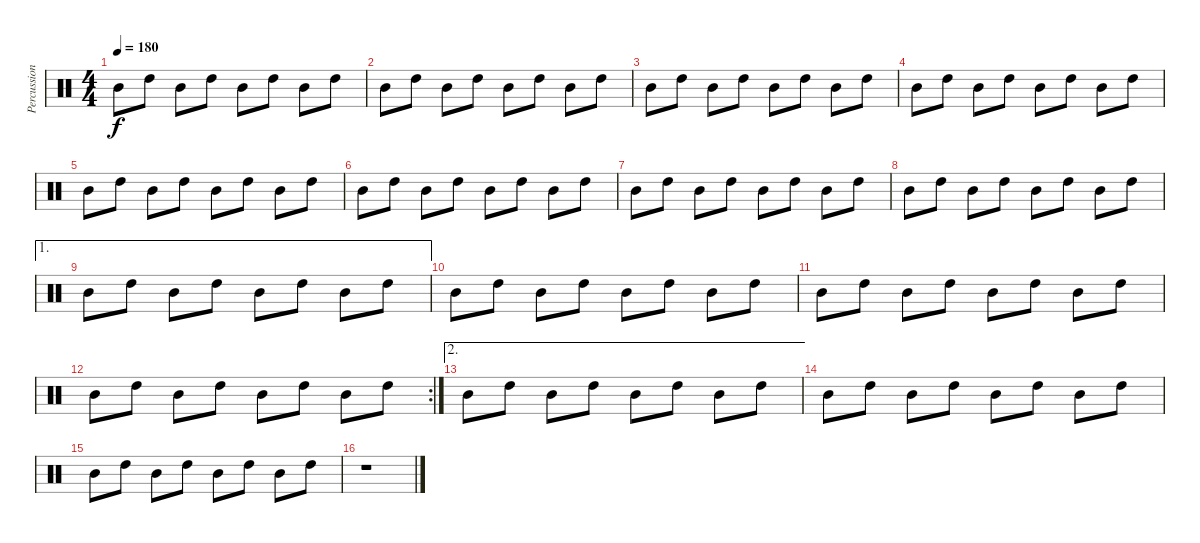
\track ("Percussions" "Percussion") {instrument percussion}
\staff {score}
\articulation defaults
\ts (4 4)
\tempo 180
\clef neutral
\ks c "Mid Tom (hit)".8{dy f} "High Tom (hit)".8 "Mid Tom (hit)".8 "High Tom (hit)".8 "Mid Tom (hit)".8 "High Tom (hit)".8 "Mid Tom (hit)".8 "High Tom (hit)".8
|
"Mid Tom (hit)".8 "High Tom (hit)".8 "Mid Tom (hit)".8 "High Tom (hit)".8 "Mid Tom (hit)".8 "High Tom (hit)".8 "Mid Tom (hit)".8 "High Tom (hit)".8 |
"Mid Tom (hit)".8 "High Tom (hit)".8 "Mid Tom (hit)".8 "High Tom (hit)".8 "Mid Tom (hit)".8 "High Tom (hit)".8 "Mid Tom (hit)".8 "High Tom (hit)".8 |
"Mid Tom (hit)".8 "High Tom (hit)".8 "Mid Tom (hit)".8 "High Tom (hit)".8 "Mid Tom (hit)".8 "High Tom (hit)".8 "Mid Tom (hit)".8 "High Tom (hit)".8 |
"Mid Tom (hit)".8 "High Tom (hit)".8 "Mid Tom (hit)".8 "High Tom (hit)".8 "Mid Tom (hit)".8 "High Tom (hit)".8 "Mid Tom (hit)".8 "High Tom (hit)".8 |
"Mid Tom (hit)".8 "High Tom (hit)".8 "Mid Tom (hit)".8 "High Tom (hit)".8 "Mid Tom (hit)".8 "High Tom (hit)".8 "Mid Tom (hit)".8 "High Tom (hit)".8 |
"Mid Tom (hit)".8 "High Tom (hit)".8 "Mid Tom (hit)".8 "High Tom (hit)".8 "Mid Tom (hit)".8 "High Tom (hit)".8 "Mid Tom (hit)".8 "High Tom (hit)".8 |
"Mid Tom (hit)".8 "High Tom (hit)".8 "Mid Tom (hit)".8 "High Tom (hit)".8 "Mid Tom (hit)".8 "High Tom (hit)".8 "Mid Tom (hit)".8 "High Tom (hit)".8 |
\ae 1 "Mid Tom (hit)".8 "High Tom (hit)".8 "Mid Tom (hit)".8 "High Tom (hit)".8 "Mid Tom (hit)".8 "High Tom (hit)".8 "Mid Tom (hit)".8 "High Tom (hit)".8
|
"Mid Tom (hit)".8 "High Tom (hit)".8 "Mid Tom (hit)".8 "High Tom (hit)".8 "Mid Tom (hit)".8 "High Tom (hit)".8 "Mid Tom (hit)".8 "High Tom (hit)".8 |
"Mid Tom (hit)".8 "High Tom (hit)".8 "Mid Tom (hit)".8 "High Tom (hit)".8 "Mid Tom (hit)".8 "High Tom (hit)".8 "Mid Tom (hit)".8 "High Tom (hit)".8 |
\rc 2 "Mid Tom (hit)".8 "High Tom (hit)".8 "Mid Tom (hit)".8 "High Tom (hit)".8 "Mid Tom (hit)".8 "High Tom (hit)".8 "Mid Tom (hit)".8 "High Tom (hit)".8
|
\ae 2 "Mid Tom (hit)".8 "High Tom (hit)".8 "Mid Tom (hit)".8 "High Tom (hit)".8 "Mid Tom (hit)".8 "High Tom (hit)".8 "Mid Tom (hit)".8 "High Tom (hit)".8
|
"Mid Tom (hit)".8 "High Tom (hit)".8 "Mid Tom (hit)".8 "High Tom (hit)".8 "Mid Tom (hit)".8 "High Tom (hit)".8 "Mid Tom (hit)".8 "High Tom (hit)".8 |
"Mid Tom (hit)".8 "High Tom (hit)".8 "Mid Tom (hit)".8 "High Tom (hit)".8 "Mid Tom (hit)".8 "High Tom (hit)".8 "Mid Tom (hit)".8 "High Tom (hit)".8 |
r.1
